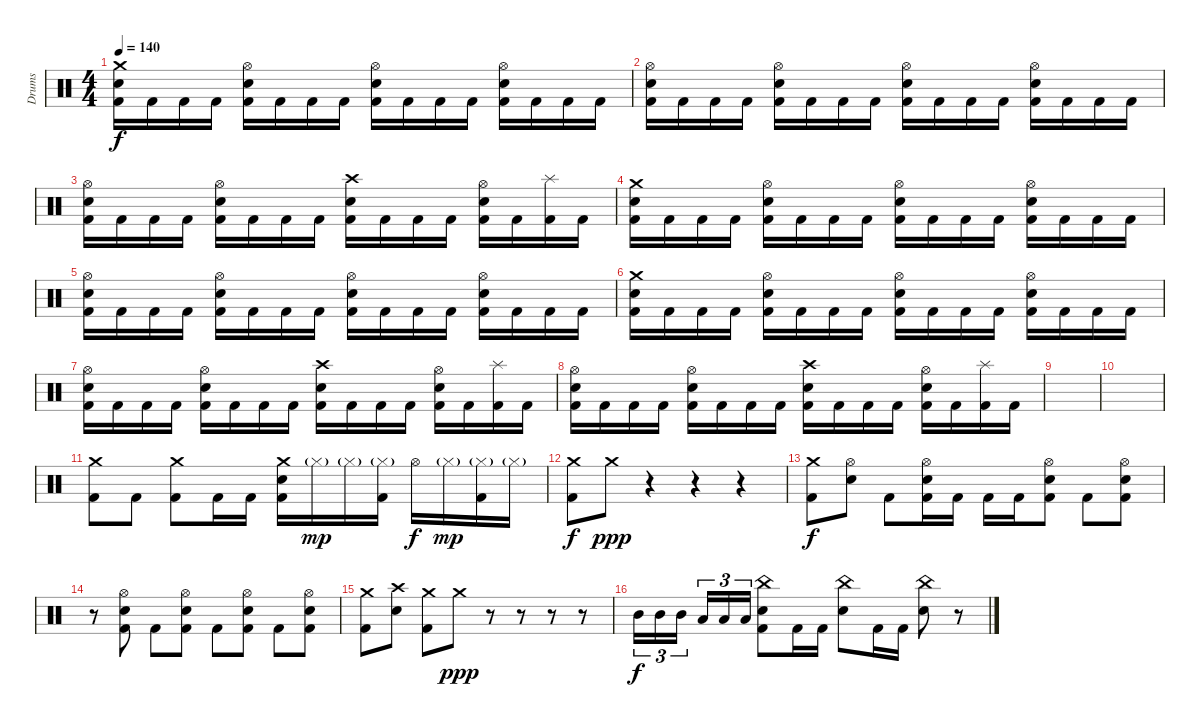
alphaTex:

\track ("Drums" "Drums") {instrument percussion}
\staff {score}
\articulation defaults
\ts (4 4)
\tempo 140
\clef neutral
\ks c
("Crash medium (hit)" "Electric Snare (hit)" "Kick (hit) 2").16{dy f} "Kick (hit) 2".16 "Kick (hit) 2".16 "Kick (hit) 2".16 ("Hi-Hat (open)" "Electric Snare (hit)" "Kick (hit) 2").16 "Kick (hit) 2".16 "Kick (hit) 2".16 "Kick (hit) 2".16 ("Hi-Hat (open)" "Electric Snare (hit)" "Kick (hit) 2").16 "Kick (hit) 2".16 "Kick (hit) 2".16 "Kick (hit) 2".16 ("Hi-Hat (open)" "Electric Snare (hit)" "Kick (hit) 2").16 "Kick (hit) 2".16 "Kick (hit) 2".16 "Kick (hit) 2".16 |
("Hi-Hat (open)" "Electric Snare (hit)" "Kick (hit) 2").16 "Kick (hit) 2".16 "Kick (hit) 2".16 "Kick (hit) 2".16 ("Hi-Hat (open)" "Electric Snare (hit)" "Kick (hit) 2").16 "Kick (hit) 2".16 "Kick (hit) 2".16 "Kick (hit) 2".16 ("Hi-Hat (open)" "Electric Snare (hit)" "Kick (hit) 2").16 "Kick (hit) 2".16 "Kick (hit) 2".16 "Kick (hit) 2".16 ("Hi-Hat (open)" "Electric Snare (hit)" "Kick (hit) 2").16 "Kick (hit) 2".16 "Kick (hit) 2".16 "Kick (hit) 2".16 |
("Hi-Hat (open)" "Electric Snare (hit)" "Kick (hit) 2").16 "Kick (hit) 2".16 "Kick (hit) 2".16 "Kick (hit) 2".16 ("Hi-Hat (open)" "Electric Snare (hit)" "Kick (hit) 2").16 "Kick (hit) 2".16 "Kick (hit) 2".16 "Kick (hit) 2".16 ("Crash high (hit)" "Electric Snare (hit)" "Kick (hit) 2").16 "Kick (hit) 2".16 "Kick (hit) 2".16 "Kick (hit) 2".16 ("Hi-Hat (open)" "Electric Snare (hit)" "Kick (hit) 2").16 "Kick (hit) 2".16 ("Splash (hit)" "Kick (hit) 2").16 "Kick (hit) 2".16 |
("Crash medium (hit)" "Electric Snare (hit)" "Kick (hit) 2").16 "Kick (hit) 2".16 "Kick (hit) 2".16 "Kick (hit) 2".16 ("Hi-Hat (open)" "Electric Snare (hit)" "Kick (hit) 2").16 "Kick (hit) 2".16 "Kick (hit) 2".16 "Kick (hit) 2".16 ("Hi-Hat (open)" "Electric Snare (hit)" "Kick (hit) 2").16 "Kick (hit) 2".16 "Kick (hit) 2".16 "Kick (hit) 2".16 ("Hi-Hat (open)" "Electric Snare (hit)" "Kick (hit) 2").16 "Kick (hit) 2".16 "Kick (hit) 2".16 "Kick (hit) 2".16 |
("Hi-Hat (open)" "Electric Snare (hit)" "Kick (hit) 2").16 "Kick (hit) 2".16 "Kick (hit) 2".16 "Kick (hit) 2".16 ("Hi-Hat (open)" "Electric Snare (hit)" "Kick (hit) 2").16 "Kick (hit) 2".16 "Kick (hit) 2".16 "Kick (hit) 2".16 ("Hi-Hat (open)" "Electric Snare (hit)" "Kick (hit) 2").16 "Kick (hit) 2".16 "Kick (hit) 2".16 "Kick (hit) 2".16 ("Hi-Hat (open)" "Electric Snare (hit)" "Kick (hit) 2").16 "Kick (hit) 2".16 "Kick (hit) 2".16 "Kick (hit) 2".16 |
("Crash medium (hit)" "Electric Snare (hit)" "Kick (hit) 2").16 "Kick (hit) 2".16 "Kick (hit) 2".16 "Kick (hit) 2".16 ("Hi-Hat (open)" "Electric Snare (hit)" "Kick (hit) 2").16 "Kick (hit) 2".16 "Kick (hit) 2".16 "Kick (hit) 2".16 ("Hi-Hat (open)" "Electric Snare (hit)" "Kick (hit) 2").16 "Kick (hit) 2".16 "Kick (hit) 2".16 "Kick (hit) 2".16 ("Hi-Hat (open)" "Electric Snare (hit)" "Kick (hit) 2").16 "Kick (hit) 2".16 "Kick (hit) 2".16 "Kick (hit) 2".16 |
("Hi-Hat (open)" "Electric Snare (hit)" "Kick (hit) 2").16 "Kick (hit) 2".16 "Kick (hit) 2".16 "Kick (hit) 2".16 ("Hi-Hat (open)" "Electric Snare (hit)" "Kick (hit) 2").16 "Kick (hit) 2".16 "Kick (hit) 2".16 "Kick (hit) 2".16 ("Crash high (hit)" "Electric Snare (hit)" "Kick (hit) 2").16 "Kick (hit) 2".16 "Kick (hit) 2".16 "Kick (hit) 2".16 ("Hi-Hat (open)" "Electric Snare (hit)" "Kick (hit) 2").16 "Kick (hit) 2".16 ("Splash (hit)" "Kick (hit) 2").16 "Kick (hit) 2".16 |
("Hi-Hat (open)" "Electric Snare (hit)" "Kick (hit) 2").16 "Kick (hit) 2".16 "Kick (hit) 2".16 "Kick (hit) 2".16 ("Hi-Hat (open)" "Electric Snare (hit)" "Kick (hit) 2").16 "Kick (hit) 2".16 "Kick (hit) 2".16 "Kick (hit) 2".16 ("Crash high (hit)" "Electric Snare (hit)" "Kick (hit) 2").16 "Kick (hit) 2".16 "Kick (hit) 2".16 "Kick (hit) 2".16 ("Hi-Hat (open)" "Electric Snare (hit)" "Kick (hit) 2").16 "Kick (hit) 2".16 ("Splash (hit)" "Kick (hit) 2").16 "Kick (hit) 2".16 |
|
|
("Crash medium (hit)" "Kick (hit) 2").8 "Kick (hit) 2".8 ("Crash medium (hit)" "Kick (hit) 2").8 "Kick (hit) 2".16 "Kick (hit) 2".16 ("Crash medium (hit)" "Electric Snare (hit)" "Kick (hit) 2").16 "Hi-Hat (closed)"{g}.16{dy mp} "Hi-Hat (closed)"{g}.16 ("Hi-Hat (closed)"{g} "Kick (hit) 2").16 "Hi-Hat (open)".16{dy f} "Hi-Hat (closed)"{g}.16{dy mp} ("Hi-Hat (closed)"{g} "Kick (hit) 2").16 "Hi-Hat (closed)"{g}.16 |
("Crash medium (hit)" "Kick (hit) 2").8{dy f} "Crash medium (hit)".8{dy ppp} r.4 r.4 r.4 |
("Crash medium (hit)" "Kick (hit) 2").8{dy f} ("Hi-Hat (open)" "Electric Snare (hit)").8 "Kick (hit) 2".8 ("Hi-Hat (open)" "Electric Snare (hit)" "Kick (hit) 2").16 "Kick (hit) 2".16 "Kick (hit) 2".16 "Kick (hit) 2".16 ("Hi-Hat (open)" "Electric Snare (hit)" "Kick (hit) 2").8 "Kick (hit) 2".8 ("Hi-Hat (open)" "Electric Snare (hit)" "Kick (hit) 2").8 |
r.8 ("Hi-Hat (open)" "Electric Snare (hit)" "Kick (hit) 2").8 "Kick (hit) 2".8 ("Hi-Hat (open)" "Electric Snare (hit)" "Kick (hit) 2").8 "Kick (hit) 2".8 ("Hi-Hat (open)" "Electric Snare (hit)" "Kick (hit) 2").8 "Kick (hit) 2".8 ("Hi-Hat (open)" "Electric Snare (hit)" "Kick (hit) 2").8 |
("Crash medium (hit)" "Kick (hit) 2").8 ("Crash high (hit)" "Electric Snare (hit)").8 ("Crash medium (hit)" "Kick (hit) 2").8 "Crash medium (hit)".8{dy ppp} r.8 r.8 r.8 r.8 |
"Mid Tom (hit)".16{tu (3 2) dy f} "Mid Tom (hit)".16{tu (3 2)} "Mid Tom (hit)".16{tu (3 2) beam splitsecondary} "Low Tom (hit)".16{tu (3 2)} "Low Tom (hit)".16{tu (3 2)} "Low Tom (hit)".16{tu (3 2)} ("China (hit)" "Electric Snare (hit)" "Kick (hit) 2").8 "Kick (hit) 2".16 "Kick (hit) 2".16 ("China (hit)" "Electric Snare (hit)").8 "Kick (hit) 2".16 "Kick (hit) 2".16 ("China (hit)" "Electric Snare (hit)").8 r.8
